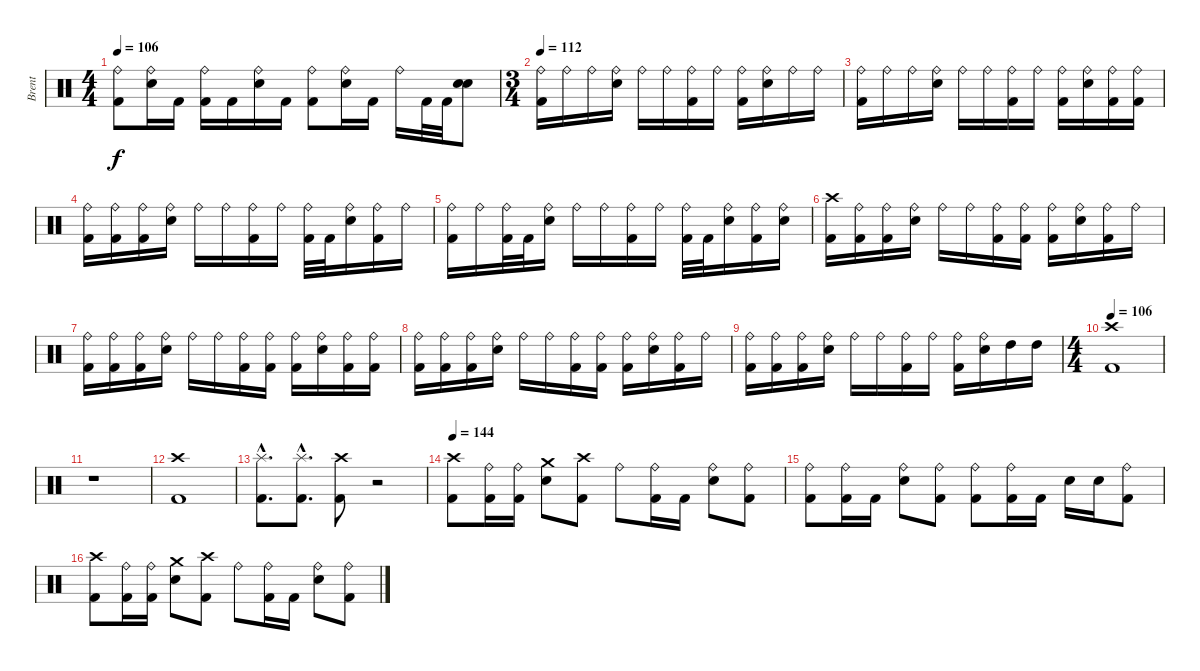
\track ("Brent" "Brent") {instrument percussion}
\staff {score}
\articulation defaults
\ts (4 4)
\tempo 106
\clef neutral
\ks c
("Ride (bell)" "Kick (hit) 2").8{dy f} ("Ride (bell)" "Snare (hit) 2").16 "Kick (hit) 2".16 ("Ride (bell)" "Kick (hit) 2").16 "Kick (hit) 2".16 ("Ride (bell)" "Snare (hit) 2").16 "Kick (hit) 2".16 ("Ride (bell)" "Kick (hit) 2").8 ("Ride (bell)" "Snare (hit) 2").16 "Kick (hit) 2".16 "Ride (bell)".16 "Kick (hit) 2".32 "Kick (hit) 2".32 ("Snare (hit) 2" "Snare (hit) 2").8 |
\ts (3 4)
\tempo 112
("Ride (bell)" "Kick (hit) 2").16 "Ride (bell)".16 "Ride (bell)".16 ("Ride (bell)" "Snare (hit) 2").16 "Ride (bell)".16 "Ride (bell)".16 ("Ride (bell)" "Kick (hit) 2").16 "Ride (bell)".16 ("Ride (bell)" "Kick (hit) 2").16 ("Ride (bell)" "Snare (hit) 2").16 "Ride (bell)".16 "Ride (bell)".16 |
("Ride (bell)" "Kick (hit) 2").16 "Ride (bell)".16 "Ride (bell)".16 ("Ride (bell)" "Snare (hit) 2").16 "Ride (bell)".16 "Ride (bell)".16 ("Ride (bell)" "Kick (hit) 2").16 "Ride (bell)".16 ("Ride (bell)" "Kick (hit) 2").16 ("Ride (bell)" "Snare (hit) 2").16 ("Ride (bell)" "Kick (hit) 2").16 ("Ride (bell)" "Kick (hit) 2").16 |
("Ride (bell)" "Kick (hit) 2").16 ("Ride (bell)" "Kick (hit) 2").16 ("Ride (bell)" "Kick (hit) 2").16 ("Ride (bell)" "Snare (hit) 2").16 "Ride (bell)".16 "Ride (bell)".16 ("Ride (bell)" "Kick (hit) 2").16 "Ride (bell)".16 ("Ride (bell)" "Kick (hit) 2").32 "Kick (hit) 2".32 ("Ride (bell)" "Snare (hit) 2").16 ("Ride (bell)" "Kick (hit) 2").16 "Ride (bell)".16 |
("Ride (bell)" "Kick (hit) 2").16 "Ride (bell)".16 ("Ride (bell)" "Kick (hit) 2").32 "Kick (hit) 2".32 ("Ride (bell)" "Snare (hit) 2").16 "Ride (bell)".16 "Ride (bell)".16 ("Ride (bell)" "Kick (hit) 2").16 "Ride (bell)".16 ("Ride (bell)" "Kick (hit) 2").32 "Kick (hit) 2".32 ("Ride (bell)" "Snare (hit) 2").16 ("Ride (bell)" "Kick (hit) 2").16 ("Ride (bell)" "Snare (hit) 2").16 |
("Crash high (hit)" "Kick (hit) 2").16 ("Ride (bell)" "Kick (hit) 2").16 ("Ride (bell)" "Kick (hit) 2").16 ("Ride (bell)" "Snare (hit) 2").16 "Ride (bell)".16 "Ride (bell)".16 ("Ride (bell)" "Kick (hit) 2").16 ("Ride (bell)" "Kick (hit) 2").16 ("Ride (bell)" "Kick (hit) 2").16 ("Ride (bell)" "Snare (hit) 2").16 ("Ride (bell)" "Kick (hit) 2").16 "Ride (bell)".16 |
("Ride (bell)" "Kick (hit) 2").16 ("Ride (bell)" "Kick (hit) 2").16 ("Ride (bell)" "Kick (hit) 2").16 ("Ride (bell)" "Snare (hit) 2").16 "Ride (bell)".16 "Ride (bell)".16 ("Ride (bell)" "Kick (hit) 2").16 ("Ride (bell)" "Kick (hit) 2").16 ("Ride (bell)" "Kick (hit) 2").16 ("Ride (bell)" "Snare (hit) 2").16 ("Ride (bell)" "Kick (hit) 2").16 ("Ride (bell)" "Kick (hit) 2").16 |
("Ride (bell)" "Kick (hit) 2").16 ("Ride (bell)" "Kick (hit) 2").16 ("Ride (bell)" "Kick (hit) 2").16 ("Ride (bell)" "Snare (hit) 2").16 "Ride (bell)".16 "Ride (bell)".16 ("Ride (bell)" "Kick (hit) 2").16 ("Ride (bell)" "Kick (hit) 2").16 ("Ride (bell)" "Kick (hit) 2").16 ("Ride (bell)" "Snare (hit) 2").16 ("Ride (bell)" "Kick (hit) 2").16 "Ride (bell)".16 |
("Ride (bell)" "Kick (hit) 2").16 ("Ride (bell)" "Kick (hit) 2").16 ("Ride (bell)" "Kick (hit) 2").16 ("Ride (bell)" "Snare (hit) 2").16 "Ride (bell)".16 "Ride (bell)".16 ("Ride (bell)" "Kick (hit) 2").16 "Ride (bell)".16 ("Ride (bell)" "Kick (hit) 2").16 ("Ride (bell)" "Snare (hit) 2").16 "High Tom (hit)".16 "High Tom (hit)".16 |
\ts (4 4)
\tempo 106
("Crash high (hit)" "Kick (hit) 2").1 |
r.1 |
("Crash high (hit)" "Kick (hit) 2").1 |
("Splash (hit)"{hac} "Kick (hit) 2"{hac}).8{d} ("Splash (hit)"{hac} "Kick (hit) 2"{hac}).8{d} ("Crash high (hit)" "Kick (hit) 2").8 r.2 |
\tempo 144
("Crash high (hit)" "Kick (hit) 2").8 ("Ride (bell)" "Kick (hit) 2").16 ("Ride (bell)" "Kick (hit) 2").16 ("Crash medium (hit)" "Snare (hit) 2").8 ("Crash high (hit)" "Kick (hit) 2").8 "Ride (bell)".8 ("Ride (bell)" "Kick (hit) 2").16 "Kick (hit) 2".16 ("Ride (bell)" "Snare (hit) 2").8 ("Ride (bell)" "Kick (hit) 2").8 |
("Ride (bell)" "Kick (hit) 2").8 ("Ride (bell)" "Kick (hit) 2").16 "Kick (hit) 2".16 ("Ride (bell)" "Snare (hit) 2").8 ("Ride (bell)" "Kick (hit) 2").8 ("Ride (bell)" "Kick (hit) 2").8 ("Ride (bell)" "Kick (hit) 2").16 "Kick (hit) 2".16 "Snare (hit) 2".16 "Snare (hit) 2".16 ("Ride (bell)" "Kick (hit) 2").8 |
("Crash high (hit)" "Kick (hit) 2").8 ("Ride (bell)" "Kick (hit) 2").16 ("Ride (bell)" "Kick (hit) 2").16 ("Crash medium (hit)" "Snare (hit) 2").8 ("Crash high (hit)" "Kick (hit) 2").8 "Ride (bell)".8 ("Ride (bell)" "Kick (hit) 2").16 "Kick (hit) 2".16 ("Ride (bell)" "Snare (hit) 2").8 ("Ride (bell)" "Kick (hit) 2").8
